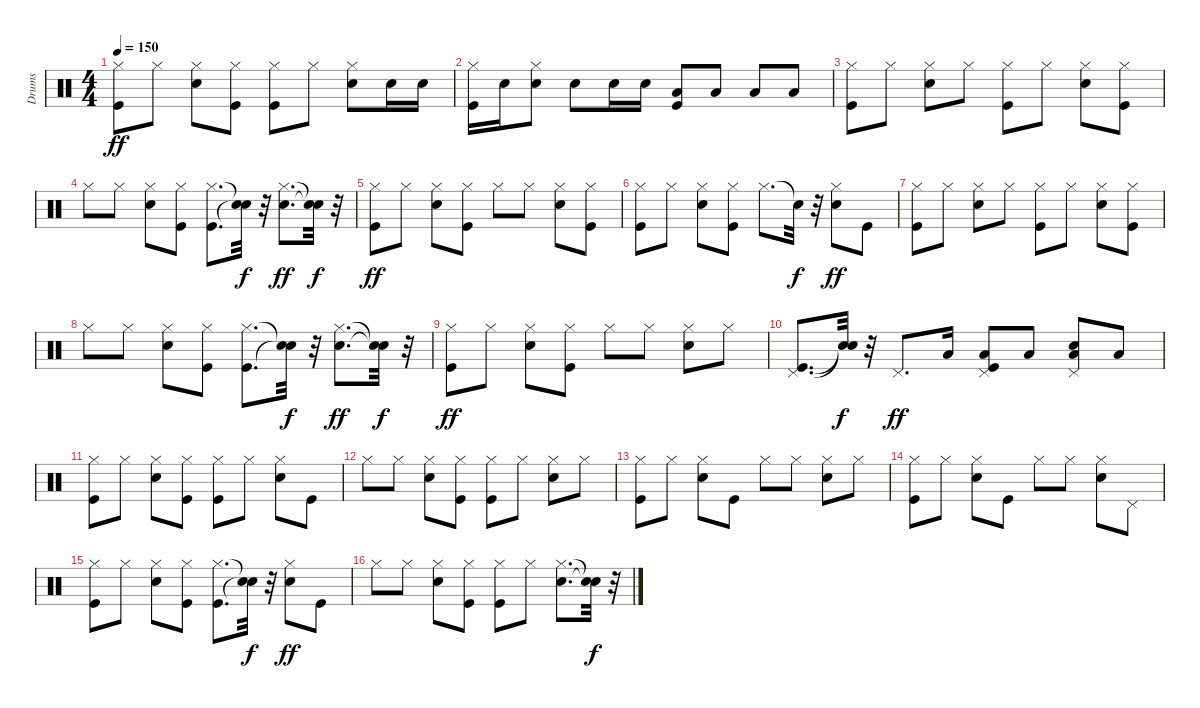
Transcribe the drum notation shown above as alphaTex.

\track ("Drums" "Drums") {instrument percussion}
\staff {score}
\articulation defaults
\ts (4 4)
\tempo 150
\clef neutral
\ks c
("Kick (hit)" "Hi-Hat (closed)").8{dy ff} "Hi-Hat (closed)".8 ("Snare (hit) 2" "Hi-Hat (closed)").8 ("Kick (hit)" "Hi-Hat (closed)").8 ("Kick (hit)" "Hi-Hat (closed)").8 "Hi-Hat (closed)".8 ("Snare (hit) 2" "Hi-Hat (closed)").8 "Snare (hit) 2".16 "Snare (hit) 2".16 |
("Kick (hit)" "Hi-Hat (closed)").16 "Snare (hit) 2".16 ("Snare (hit) 2" "Hi-Hat (closed)").8 "Snare (hit) 2".8 "Snare (hit) 2".16 "Snare (hit) 2".16 ("Kick (hit)" "Low Tom (hit)").8 "Low Tom (hit)".8 "Low Floor Tom (hit)".8 "Low Floor Tom (hit)".8 |
("Kick (hit)" "Hi-Hat (closed)").8 "Hi-Hat (closed)".8 ("Snare (hit) 2" "Hi-Hat (closed)").8 "Hi-Hat (closed)".8 ("Kick (hit)" "Hi-Hat (closed)").8 "Hi-Hat (closed)".8 ("Snare (hit) 2" "Hi-Hat (closed)").8 ("Kick (hit)" "Hi-Hat (closed)").8 |
"Hi-Hat (closed)".8 "Hi-Hat (closed)".8 ("Snare (hit) 2" "Hi-Hat (closed)").8 ("Kick (hit)" "Hi-Hat (closed)").8 ("Kick (hit)" "Hi-Hat (closed)").8{d} ("Snare (hit)"{t} "Snare (hit)"{t}).32{dy f} r.32 ("Snare (hit) 2" "Hi-Hat (closed)").8{d dy ff} ("Snare (hit)"{t} "Snare (hit)"{t}).32{dy f} r.32 |
("Kick (hit)" "Hi-Hat (closed)").8{dy ff} "Hi-Hat (closed)".8 ("Snare (hit) 2" "Hi-Hat (closed)").8 ("Kick (hit)" "Hi-Hat (closed)").8 "Hi-Hat (closed)".8 "Hi-Hat (closed)".8 ("Snare (hit) 2" "Hi-Hat (closed)").8 ("Kick (hit)" "Hi-Hat (closed)").8 |
("Kick (hit)" "Hi-Hat (closed)").8 "Hi-Hat (closed)".8 ("Snare (hit) 2" "Hi-Hat (closed)").8 ("Kick (hit)" "Hi-Hat (closed)").8 "Hi-Hat (closed)".8{d} "Snare (hit)"{t}.32{dy f} r.32 ("Snare (hit) 2" "Hi-Hat (closed)").8{dy ff} "Kick (hit)".8 |
("Kick (hit)" "Hi-Hat (closed)").8 "Hi-Hat (closed)".8 ("Snare (hit) 2" "Hi-Hat (closed)").8 "Hi-Hat (closed)".8 ("Kick (hit)" "Hi-Hat (closed)").8 "Hi-Hat (closed)".8 ("Snare (hit) 2" "Hi-Hat (closed)").8 ("Kick (hit)" "Hi-Hat (closed)").8 |
"Hi-Hat (closed)".8 "Hi-Hat (closed)".8 ("Snare (hit) 2" "Hi-Hat (closed)").8 ("Kick (hit)" "Hi-Hat (closed)").8 ("Kick (hit)" "Hi-Hat (closed)").8{d} ("Snare (hit)"{t} "Snare (hit)"{t}).32{dy f} r.32 ("Snare (hit) 2" "Hi-Hat (closed)").8{d dy ff} ("Snare (hit)"{t} "Snare (hit)"{t}).32{dy f} r.32 |
("Kick (hit)" "Hi-Hat (closed)").8{dy ff} "Hi-Hat (closed)".8 ("Snare (hit) 2" "Hi-Hat (closed)").8 ("Kick (hit)" "Hi-Hat (closed)").8 "Hi-Hat (closed)".8 "Hi-Hat (closed)".8 ("Snare (hit) 2" "Hi-Hat (closed)").8 "Hi-Hat (closed)".8 |
("Kick (hit)" "Pedal Hi-Hat (hit)").8{d} ("Snare (hit)"{t} "Snare (hit)"{t}).32{dy f} r.32 "Pedal Hi-Hat (hit)".8{d dy ff} "Low Tom (hit)".16 ("Kick (hit)" "Pedal Hi-Hat (hit)" "Low Tom (hit)").8 "Low Floor Tom (hit)".8 ("Snare (hit) 2" "Low Floor Tom (hit)" "Pedal Hi-Hat (hit)").8 "Low Floor Tom (hit)".8 |
("Kick (hit)" "Hi-Hat (closed)").8 "Hi-Hat (closed)".8 ("Snare (hit) 2" "Hi-Hat (closed)").8 ("Kick (hit)" "Hi-Hat (closed)").8 ("Kick (hit)" "Hi-Hat (closed)").8 "Hi-Hat (closed)".8 ("Snare (hit) 2" "Hi-Hat (closed)").8 "Kick (hit)".8 |
"Hi-Hat (closed)".8 "Hi-Hat (closed)".8 ("Snare (hit) 2" "Hi-Hat (closed)").8 ("Kick (hit)" "Hi-Hat (closed)").8 ("Kick (hit)" "Hi-Hat (closed)").8 "Hi-Hat (closed)".8 ("Snare (hit) 2" "Hi-Hat (closed)").8 "Hi-Hat (closed)".8 |
("Kick (hit)" "Hi-Hat (closed)").8 "Hi-Hat (closed)".8 ("Snare (hit) 2" "Hi-Hat (closed)").8 "Kick (hit)".8 "Hi-Hat (closed)".8 "Hi-Hat (closed)".8 ("Snare (hit) 2" "Hi-Hat (closed)").8 "Hi-Hat (closed)".8 |
("Kick (hit)" "Hi-Hat (closed)").8 "Hi-Hat (closed)".8 ("Snare (hit) 2" "Hi-Hat (closed)").8 "Kick (hit)".8 "Hi-Hat (closed)".8 "Hi-Hat (closed)".8 ("Snare (hit) 2" "Hi-Hat (closed)").8 "Pedal Hi-Hat (hit)".8 |
("Kick (hit)" "Hi-Hat (closed)").8 "Hi-Hat (closed)".8 ("Snare (hit) 2" "Hi-Hat (closed)").8 ("Kick (hit)" "Hi-Hat (closed)").8 ("Kick (hit)" "Hi-Hat (closed)").8{d} ("Snare (hit)"{t} "Snare (hit)"{t}).32{dy f} r.32 ("Snare (hit) 2" "Hi-Hat (closed)").8{dy ff} "Kick (hit)".8 |
"Hi-Hat (closed)".8 "Hi-Hat (closed)".8 ("Snare (hit) 2" "Hi-Hat (closed)").8 ("Kick (hit)" "Hi-Hat (closed)").8 ("Kick (hit)" "Hi-Hat (closed)").8 "Hi-Hat (closed)".8 ("Snare (hit) 2" "Hi-Hat (closed)").8{d} ("Snare (hit)"{t} "Snare (hit)"{t}).32{dy f} r.32
